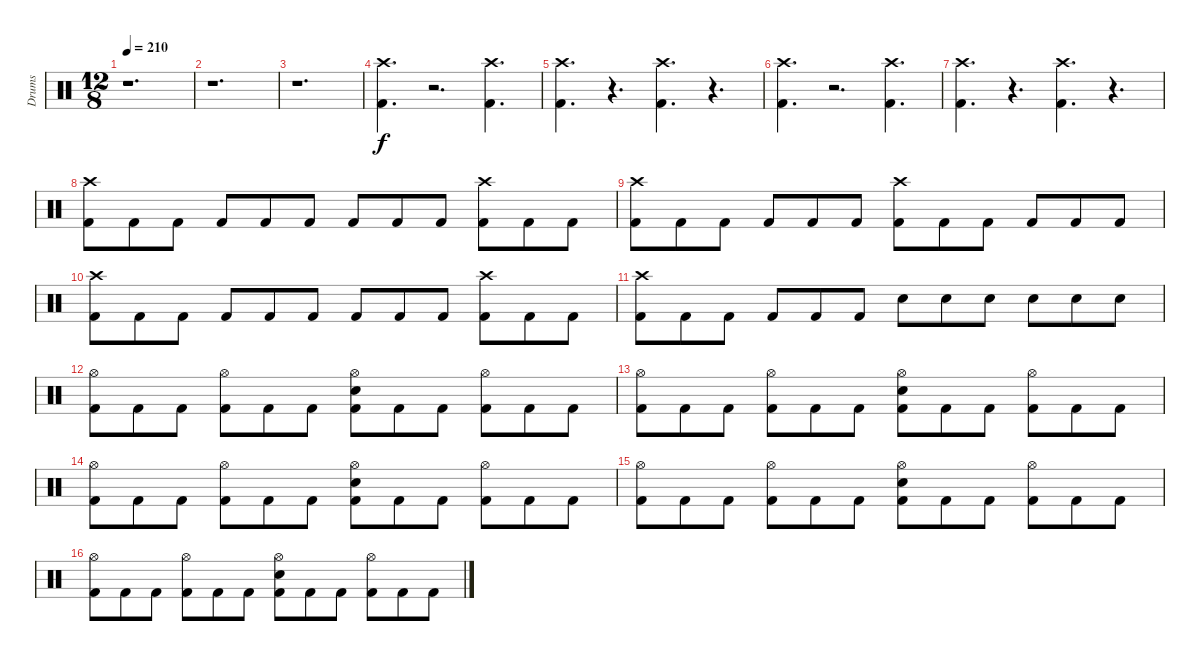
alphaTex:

\track ("Drums" "Drums") {instrument percussion}
\staff {score}
\articulation defaults
\ts (12 8)
\tempo 210
\clef neutral
\ks c
r.1{d dy f} |
r.1{d} |
r.1{d} |
("Crash high (hit)" "Kick (hit) 2").4{d} r.2{d} ("Crash high (hit)" "Kick (hit) 2").4{d} |
("Crash high (hit)" "Kick (hit) 2").4{d} r.4{d} ("Crash high (hit)" "Kick (hit) 2").4{d} r.4{d} |
("Crash high (hit)" "Kick (hit) 2").4{d} r.2{d} ("Crash high (hit)" "Kick (hit) 2").4{d} |
("Crash high (hit)" "Kick (hit) 2").4{d} r.4{d} ("Crash high (hit)" "Kick (hit) 2").4{d} r.4{d} |
("Crash high (hit)" "Kick (hit) 2").8 "Kick (hit) 2".8 "Kick (hit) 2".8 "Kick (hit) 2".8 "Kick (hit) 2".8 "Kick (hit) 2".8 "Kick (hit) 2".8 "Kick (hit) 2".8 "Kick (hit) 2".8 ("Crash high (hit)" "Kick (hit) 2").8 "Kick (hit) 2".8 "Kick (hit) 2".8 |
("Crash high (hit)" "Kick (hit) 2").8 "Kick (hit) 2".8 "Kick (hit) 2".8 "Kick (hit) 2".8 "Kick (hit) 2".8 "Kick (hit) 2".8 ("Crash high (hit)" "Kick (hit) 2").8 "Kick (hit) 2".8 "Kick (hit) 2".8 "Kick (hit) 2".8 "Kick (hit) 2".8 "Kick (hit) 2".8 |
("Crash high (hit)" "Kick (hit) 2").8 "Kick (hit) 2".8 "Kick (hit) 2".8 "Kick (hit) 2".8 "Kick (hit) 2".8 "Kick (hit) 2".8 "Kick (hit) 2".8 "Kick (hit) 2".8 "Kick (hit) 2".8 ("Crash high (hit)" "Kick (hit) 2").8 "Kick (hit) 2".8 "Kick (hit) 2".8 |
("Crash high (hit)" "Kick (hit) 2").8 "Kick (hit) 2".8 "Kick (hit) 2".8 "Kick (hit) 2".8 "Kick (hit) 2".8 "Kick (hit) 2".8 "Electric Snare (hit)".8 "Electric Snare (hit)".8 "Electric Snare (hit)".8 "Electric Snare (hit)".8 "Electric Snare (hit)".8 "Electric Snare (hit)".8 |
("Hi-Hat (open)" "Kick (hit) 2").8 "Kick (hit) 2".8 "Kick (hit) 2".8 ("Hi-Hat (open)" "Kick (hit) 2").8 "Kick (hit) 2".8 "Kick (hit) 2".8 ("Hi-Hat (open)" "Electric Snare (hit)" "Kick (hit) 2").8 "Kick (hit) 2".8 "Kick (hit) 2".8 ("Hi-Hat (open)" "Kick (hit) 2").8 "Kick (hit) 2".8 "Kick (hit) 2".8 |
("Hi-Hat (open)" "Kick (hit) 2").8 "Kick (hit) 2".8 "Kick (hit) 2".8 ("Hi-Hat (open)" "Kick (hit) 2").8 "Kick (hit) 2".8 "Kick (hit) 2".8 ("Hi-Hat (open)" "Electric Snare (hit)" "Kick (hit) 2").8 "Kick (hit) 2".8 "Kick (hit) 2".8 ("Hi-Hat (open)" "Kick (hit) 2").8 "Kick (hit) 2".8 "Kick (hit) 2".8 |
("Hi-Hat (open)" "Kick (hit) 2").8 "Kick (hit) 2".8 "Kick (hit) 2".8 ("Hi-Hat (open)" "Kick (hit) 2").8 "Kick (hit) 2".8 "Kick (hit) 2".8 ("Hi-Hat (open)" "Electric Snare (hit)" "Kick (hit) 2").8 "Kick (hit) 2".8 "Kick (hit) 2".8 ("Hi-Hat (open)" "Kick (hit) 2").8 "Kick (hit) 2".8 "Kick (hit) 2".8 |
("Hi-Hat (open)" "Kick (hit) 2").8 "Kick (hit) 2".8 "Kick (hit) 2".8 ("Hi-Hat (open)" "Kick (hit) 2").8 "Kick (hit) 2".8 "Kick (hit) 2".8 ("Hi-Hat (open)" "Electric Snare (hit)" "Kick (hit) 2").8 "Kick (hit) 2".8 "Kick (hit) 2".8 ("Hi-Hat (open)" "Kick (hit) 2").8 "Kick (hit) 2".8 "Kick (hit) 2".8 |
("Hi-Hat (open)" "Kick (hit) 2").8 "Kick (hit) 2".8 "Kick (hit) 2".8 ("Hi-Hat (open)" "Kick (hit) 2").8 "Kick (hit) 2".8 "Kick (hit) 2".8 ("Hi-Hat (open)" "Electric Snare (hit)" "Kick (hit) 2").8 "Kick (hit) 2".8 "Kick (hit) 2".8 ("Hi-Hat (open)" "Kick (hit) 2").8 "Kick (hit) 2".8 "Kick (hit) 2".8
